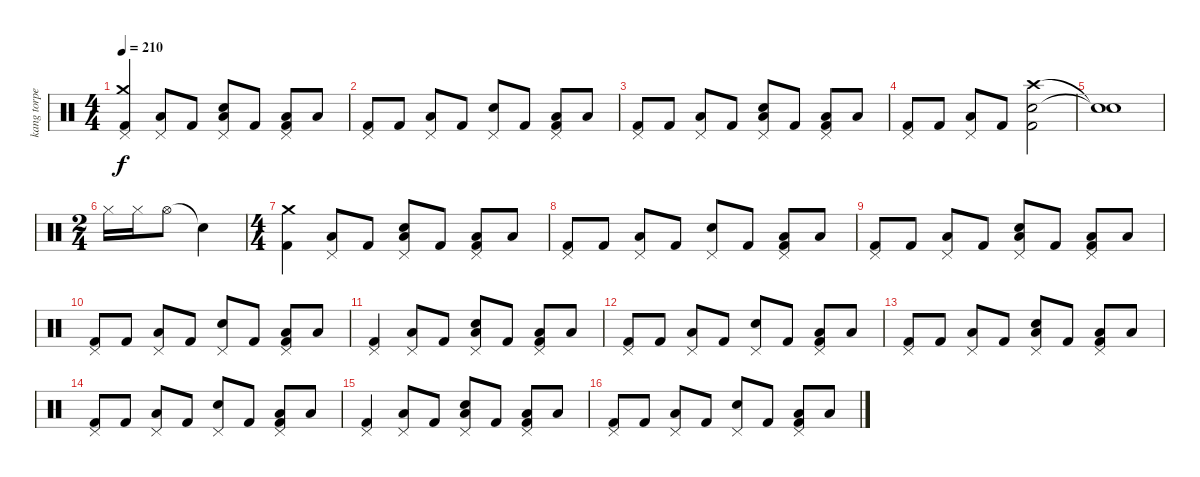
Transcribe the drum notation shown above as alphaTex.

\track ("kang torpey" "kang torpe") {instrument percussion}
\staff {score}
\articulation defaults
\ts (4 4)
\tempo 210
\clef neutral
\ks c
("Pedal Hi-Hat (hit)" "Crash medium (hit)" "Kick (hit) 2").4{dy f} ("Pedal Hi-Hat (hit)" "Low Floor Tom (hit)").8 "Kick (hit) 2".8 ("Pedal Hi-Hat (hit)" "Low Floor Tom (hit)" "Electric Snare (hit)").8 "Kick (hit) 2".8 ("Pedal Hi-Hat (hit)" "Low Floor Tom (hit)" "Kick (hit) 2").8 "Low Floor Tom (hit)".8 |
("Pedal Hi-Hat (hit)" "Kick (hit) 2").8 "Kick (hit) 2".8 ("Pedal Hi-Hat (hit)" "Low Floor Tom (hit)").8 "Kick (hit) 2".8 ("Pedal Hi-Hat (hit)" "Electric Snare (hit)").8 "Kick (hit) 2".8 ("Pedal Hi-Hat (hit)" "Low Floor Tom (hit)" "Kick (hit) 2").8 "Low Floor Tom (hit)".8 |
("Pedal Hi-Hat (hit)" "Kick (hit) 2").8 "Kick (hit) 2".8 ("Pedal Hi-Hat (hit)" "Low Floor Tom (hit)").8 "Kick (hit) 2".8 ("Pedal Hi-Hat (hit)" "Low Floor Tom (hit)" "Electric Snare (hit)").8 "Kick (hit) 2".8 ("Pedal Hi-Hat (hit)" "Low Floor Tom (hit)" "Kick (hit) 2").8 "Low Floor Tom (hit)".8 |
("Pedal Hi-Hat (hit)" "Kick (hit) 2").8 "Kick (hit) 2".8 ("Pedal Hi-Hat (hit)" "Low Floor Tom (hit)").8 "Kick (hit) 2".8 ("Crash high (hit)" "Electric Snare (hit)" "Kick (hit) 2").2 |
("Snare (hit)"{t} "Snare (hit)"{t}).1 |
\ts (2 4)
"Hi-Hat (closed)".16 "Hi-Hat (closed)".16 "Hi-Hat (open)".8 "Snare (hit)"{t}.4 |
\ts (4 4)
("Crash medium (hit)" "Kick (hit) 2").4 ("Pedal Hi-Hat (hit)" "Low Floor Tom (hit)").8 "Kick (hit) 2".8 ("Pedal Hi-Hat (hit)" "Low Floor Tom (hit)" "Electric Snare (hit)").8 "Kick (hit) 2".8 ("Pedal Hi-Hat (hit)" "Low Floor Tom (hit)" "Kick (hit) 2").8 "Low Floor Tom (hit)".8 |
("Pedal Hi-Hat (hit)" "Kick (hit) 2").8 "Kick (hit) 2".8 ("Pedal Hi-Hat (hit)" "Low Floor Tom (hit)").8 "Kick (hit) 2".8 ("Pedal Hi-Hat (hit)" "Electric Snare (hit)").8 "Kick (hit) 2".8 ("Pedal Hi-Hat (hit)" "Low Floor Tom (hit)" "Kick (hit) 2").8 "Low Floor Tom (hit)".8 |
("Pedal Hi-Hat (hit)" "Kick (hit) 2").8 "Kick (hit) 2".8 ("Pedal Hi-Hat (hit)" "Low Floor Tom (hit)").8 "Kick (hit) 2".8 ("Pedal Hi-Hat (hit)" "Low Floor Tom (hit)" "Electric Snare (hit)").8 "Kick (hit) 2".8 ("Pedal Hi-Hat (hit)" "Low Floor Tom (hit)" "Kick (hit) 2").8 "Low Floor Tom (hit)".8 |
("Pedal Hi-Hat (hit)" "Kick (hit) 2").8 "Kick (hit) 2".8 ("Pedal Hi-Hat (hit)" "Low Floor Tom (hit)").8 "Kick (hit) 2".8 ("Pedal Hi-Hat (hit)" "Electric Snare (hit)").8 "Kick (hit) 2".8 ("Pedal Hi-Hat (hit)" "Low Floor Tom (hit)" "Kick (hit) 2").8 "Low Floor Tom (hit)".8 |
("Pedal Hi-Hat (hit)" "Kick (hit) 2").4 ("Pedal Hi-Hat (hit)" "Low Floor Tom (hit)").8 "Kick (hit) 2".8 ("Pedal Hi-Hat (hit)" "Low Floor Tom (hit)" "Electric Snare (hit)").8 "Kick (hit) 2".8 ("Pedal Hi-Hat (hit)" "Low Floor Tom (hit)" "Kick (hit) 2").8 "Low Floor Tom (hit)".8 |
("Pedal Hi-Hat (hit)" "Kick (hit) 2").8 "Kick (hit) 2".8 ("Pedal Hi-Hat (hit)" "Low Floor Tom (hit)").8 "Kick (hit) 2".8 ("Pedal Hi-Hat (hit)" "Electric Snare (hit)").8 "Kick (hit) 2".8 ("Pedal Hi-Hat (hit)" "Low Floor Tom (hit)" "Kick (hit) 2").8 "Low Floor Tom (hit)".8 |
("Pedal Hi-Hat (hit)" "Kick (hit) 2").8 "Kick (hit) 2".8 ("Pedal Hi-Hat (hit)" "Low Floor Tom (hit)").8 "Kick (hit) 2".8 ("Pedal Hi-Hat (hit)" "Low Floor Tom (hit)" "Electric Snare (hit)").8 "Kick (hit) 2".8 ("Pedal Hi-Hat (hit)" "Low Floor Tom (hit)" "Kick (hit) 2").8 "Low Floor Tom (hit)".8 |
("Pedal Hi-Hat (hit)" "Kick (hit) 2").8 "Kick (hit) 2".8 ("Pedal Hi-Hat (hit)" "Low Floor Tom (hit)").8 "Kick (hit) 2".8 ("Pedal Hi-Hat (hit)" "Electric Snare (hit)").8 "Kick (hit) 2".8 ("Pedal Hi-Hat (hit)" "Low Floor Tom (hit)" "Kick (hit) 2").8 "Low Floor Tom (hit)".8 |
("Pedal Hi-Hat (hit)" "Kick (hit) 2").4 ("Pedal Hi-Hat (hit)" "Low Floor Tom (hit)").8 "Kick (hit) 2".8 ("Pedal Hi-Hat (hit)" "Low Floor Tom (hit)" "Electric Snare (hit)").8 "Kick (hit) 2".8 ("Pedal Hi-Hat (hit)" "Low Floor Tom (hit)" "Kick (hit) 2").8 "Low Floor Tom (hit)".8 |
("Pedal Hi-Hat (hit)" "Kick (hit) 2").8 "Kick (hit) 2".8 ("Pedal Hi-Hat (hit)" "Low Floor Tom (hit)").8 "Kick (hit) 2".8 ("Pedal Hi-Hat (hit)" "Electric Snare (hit)").8 "Kick (hit) 2".8 ("Pedal Hi-Hat (hit)" "Low Floor Tom (hit)" "Kick (hit) 2").8 "Low Floor Tom (hit)".8
